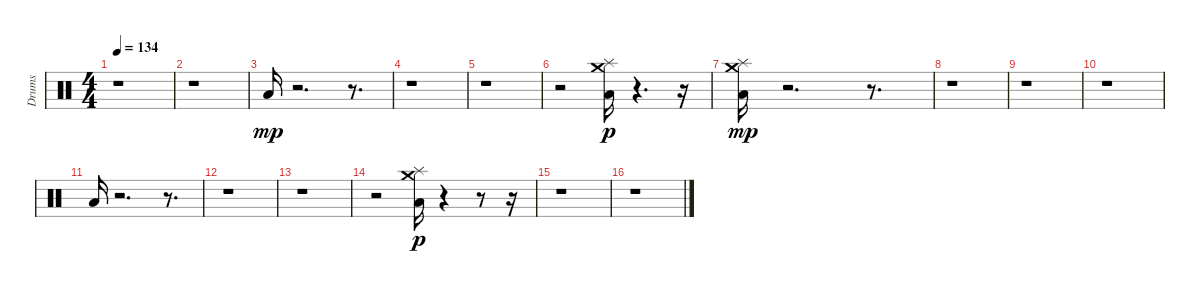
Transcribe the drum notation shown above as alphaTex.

\track ("Drums" "Drums") {instrument percussion}
\staff {score}
\articulation defaults
\ts (4 4)
\tempo 134
\clef neutral
\ks c
r.1{dy mp} |
r.1 |
"Low Floor Tom (hit)".16 r.2{d} r.8{d} |
r.1 |
r.1 |
r.2 ("Crash medium (hit)" "Splash (hit)" "Low Floor Tom (hit)").16{dy p} r.4{d} r.16 |
("Crash medium (hit)" "Splash (hit)" "Low Floor Tom (hit)").16{dy mp} r.2{d} r.8{d} |
r.1 |
r.1 |
r.1 |
"Low Floor Tom (hit)".16 r.2{d} r.8{d} |
r.1 |
r.1 |
r.2 ("Crash medium (hit)" "Splash (hit)" "Low Floor Tom (hit)").16{dy p} r.4 r.8 r.16 |
r.1 |
r.1
